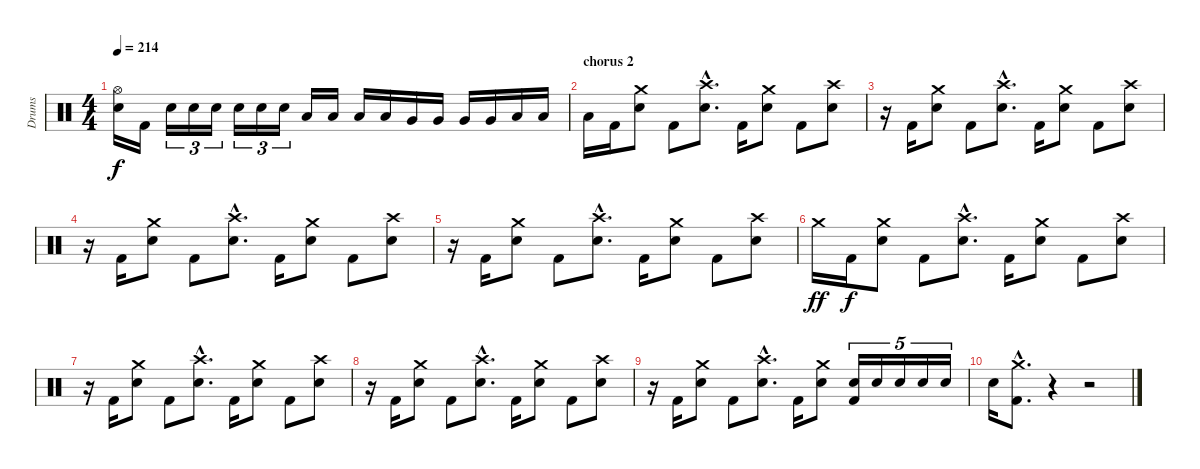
\track ("Drums" "Drums") {instrument percussion}
\staff {score}
\articulation defaults
\ts (4 4)
\tempo 214
\clef neutral
\ks c
("Hi-Hat (open)" "Snare (hit) 2").16{dy f} "Kick (hit) 2".16 "Snare (hit) 2".16{tu (3 2)} "Snare (hit) 2".16{tu (3 2)} "Snare (hit) 2".16{tu (3 2)} "Snare (hit) 2".16{tu (3 2)} "Snare (hit) 2".16{tu (3 2)} "Snare (hit) 2".16{tu (3 2)} "Low Tom (hit)".16 "Low Tom (hit)".16 "Low Tom (hit)".16 "Low Tom (hit)".16 "Very Low Tom (hit)".16 "Very Low Tom (hit)".16 "Very Low Tom (hit)".16 "Very Low Tom (hit)".16 "Low Floor Tom (hit)".16 "Low Floor Tom (hit)".16 |
\section ("" "chorus 2")
"Low Floor Tom (hit)".16 "Kick (hit) 2".16 ("Crash medium (hit)" "Snare (hit) 2").8 "Kick (hit) 2".8 ("Crash high (hit)"{hac} "Snare (hit) 2"{hac}).8{d} "Kick (hit) 2".16 ("Crash medium (hit)" "Snare (hit) 2").8 "Kick (hit) 2".8 ("Crash high (hit)" "Snare (hit) 2").8 |
r.16 "Kick (hit) 2".16 ("Crash medium (hit)" "Snare (hit) 2").8 "Kick (hit) 2".8 ("Crash high (hit)"{hac} "Snare (hit) 2"{hac}).8{d} "Kick (hit) 2".16 ("Crash medium (hit)" "Snare (hit) 2").8 "Kick (hit) 2".8 ("Crash high (hit)" "Snare (hit) 2").8 |
r.16 "Kick (hit) 2".16 ("Crash medium (hit)" "Snare (hit) 2").8 "Kick (hit) 2".8 ("Crash high (hit)"{hac} "Snare (hit) 2"{hac}).8{d} "Kick (hit) 2".16 ("Crash medium (hit)" "Snare (hit) 2").8 "Kick (hit) 2".8 ("Crash high (hit)" "Snare (hit) 2").8 |
r.16 "Kick (hit) 2".16 ("Crash medium (hit)" "Snare (hit) 2").8 "Kick (hit) 2".8 ("Crash high (hit)"{hac} "Snare (hit) 2"{hac}).8{d} "Kick (hit) 2".16 ("Crash medium (hit)" "Snare (hit) 2").8 "Kick (hit) 2".8 ("Crash high (hit)" "Snare (hit) 2").8 |
"Crash medium (hit)".16{dy ff} "Kick (hit) 2".16{dy f} ("Crash medium (hit)" "Snare (hit) 2").8 "Kick (hit) 2".8 ("Crash high (hit)"{hac} "Snare (hit) 2"{hac}).8{d} "Kick (hit) 2".16 ("Crash medium (hit)" "Snare (hit) 2").8 "Kick (hit) 2".8 ("Crash high (hit)" "Snare (hit) 2").8 |
r.16 "Kick (hit) 2".16 ("Crash medium (hit)" "Snare (hit) 2").8 "Kick (hit) 2".8 ("Crash high (hit)"{hac} "Snare (hit) 2"{hac}).8{d} "Kick (hit) 2".16 ("Crash medium (hit)" "Snare (hit) 2").8 "Kick (hit) 2".8 ("Crash high (hit)" "Snare (hit) 2").8 |
r.16 "Kick (hit) 2".16 ("Crash medium (hit)" "Snare (hit) 2").8 "Kick (hit) 2".8 ("Crash high (hit)"{hac} "Snare (hit) 2"{hac}).8{d} "Kick (hit) 2".16 ("Crash medium (hit)" "Snare (hit) 2").8 "Kick (hit) 2".8 ("Crash high (hit)" "Snare (hit) 2").8 |
r.16 "Kick (hit) 2".16 ("Crash medium (hit)" "Snare (hit) 2").8 "Kick (hit) 2".8 ("Crash high (hit)"{hac} "Snare (hit) 2"{hac}).8{d} "Kick (hit) 2".16 ("Crash medium (hit)" "Snare (hit) 2").8 ("Snare (hit) 2" "Kick (hit) 2").16{tu (5 4)} "Snare (hit) 2".16{tu (5 4)} "Snare (hit) 2".16{tu (5 4)} "Snare (hit) 2".16{tu (5 4)} "Snare (hit) 2".16{tu (5 4)} |
"Snare (hit) 2".16 ("Crash medium (hit)"{hac} "Kick (hit) 2"{hac}).8{d} r.4 r.2
